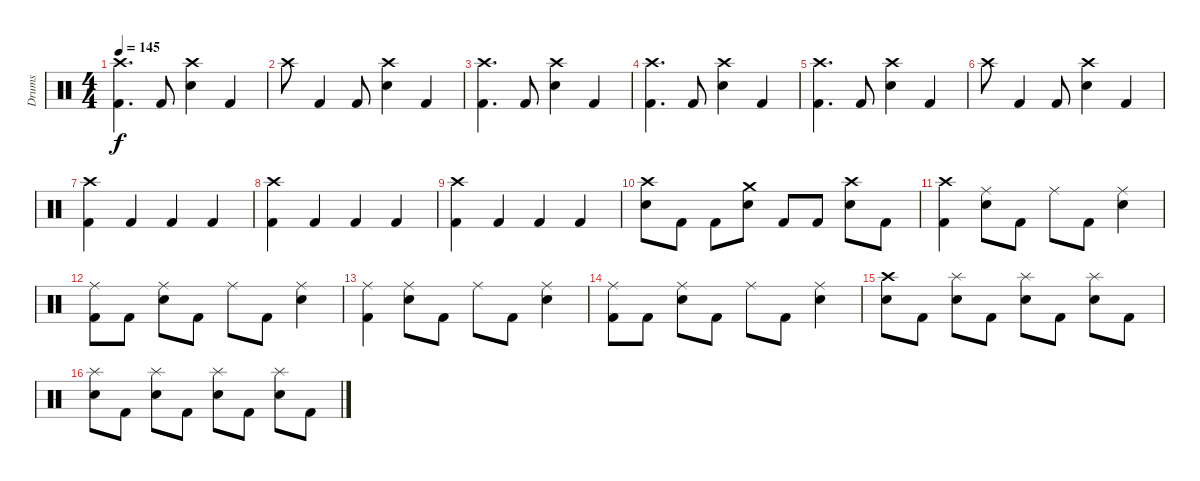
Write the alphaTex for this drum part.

\track ("Drums" "Drums") {instrument percussion}
\staff {score}
\articulation defaults
\ts (4 4)
\tempo 145
\clef neutral
\ks c
("Crash high (hit)" "Kick (hit) 2").4{d dy f} "Kick (hit) 2".8 ("Crash high (hit)" "Snare (hit) 2").4 "Kick (hit) 2".4 |
"Crash high (hit)".8 "Kick (hit) 2".4 "Kick (hit) 2".8 ("Crash high (hit)" "Snare (hit) 2").4 "Kick (hit) 2".4 |
("Crash high (hit)" "Kick (hit) 2").4{d} "Kick (hit) 2".8 ("Crash high (hit)" "Snare (hit) 2").4 "Kick (hit) 2".4 |
("Crash high (hit)" "Kick (hit) 2").4{d} "Kick (hit) 2".8 ("Crash high (hit)" "Snare (hit) 2").4 "Kick (hit) 2".4 |
("Crash high (hit)" "Kick (hit) 2").4{d} "Kick (hit) 2".8 ("Crash high (hit)" "Snare (hit) 2").4 "Kick (hit) 2".4 |
"Crash high (hit)".8 "Kick (hit) 2".4 "Kick (hit) 2".8 ("Crash high (hit)" "Snare (hit) 2").4 "Kick (hit) 2".4 |
("Crash high (hit)" "Kick (hit) 2").4 "Kick (hit) 2".4 "Kick (hit) 2".4 "Kick (hit) 2".4 |
("Crash high (hit)" "Kick (hit) 2").4 "Kick (hit) 2".4 "Kick (hit) 2".4 "Kick (hit) 2".4 |
("Crash high (hit)" "Kick (hit) 2").4 "Kick (hit) 2".4 "Kick (hit) 2".4 "Kick (hit) 2".4 |
("Crash high (hit)" "Snare (hit) 2").8 "Kick (hit) 2".8 "Kick (hit) 2".8 ("Crash medium (hit)" "Snare (hit) 2").8 "Kick (hit) 2".8 "Kick (hit) 2".8 ("Crash high (hit)" "Snare (hit) 2").8 "Kick (hit) 2".8 |
("Crash high (hit)" "Kick (hit) 2").4 ("Ride (middle)" "Snare (hit) 2").8 "Kick (hit) 2".8 "Ride (middle)".8 "Kick (hit) 2".8 ("Ride (middle)" "Snare (hit) 2").4 |
("Ride (middle)" "Kick (hit) 2").8 "Kick (hit) 2".8 ("Ride (middle)" "Snare (hit) 2").8 "Kick (hit) 2".8 "Ride (middle)".8 "Kick (hit) 2".8 ("Ride (middle)" "Snare (hit) 2").4 |
("Ride (middle)" "Kick (hit) 2").4 ("Ride (middle)" "Snare (hit) 2").8 "Kick (hit) 2".8 "Ride (middle)".8 "Kick (hit) 2".8 ("Ride (middle)" "Snare (hit) 2").4 |
("Ride (middle)" "Kick (hit) 2").8 "Kick (hit) 2".8 ("Ride (middle)" "Snare (hit) 2").8 "Kick (hit) 2".8 "Ride (middle)".8 "Kick (hit) 2".8 ("Ride (middle)" "Snare (hit) 2").4 |
("Crash high (hit)" "Snare (hit) 2").8 "Kick (hit) 2".8 ("Splash (hit)" "Snare (hit) 2").8 "Kick (hit) 2".8 ("Splash (hit)" "Snare (hit) 2").8 "Kick (hit) 2".8 ("Splash (hit)" "Snare (hit) 2").8 "Kick (hit) 2".8 |
("Splash (hit)" "Snare (hit) 2").8 "Kick (hit) 2".8 ("Splash (hit)" "Snare (hit) 2").8 "Kick (hit) 2".8 ("Splash (hit)" "Snare (hit) 2").8 "Kick (hit) 2".8 ("Splash (hit)" "Snare (hit) 2").8 "Kick (hit) 2".8
